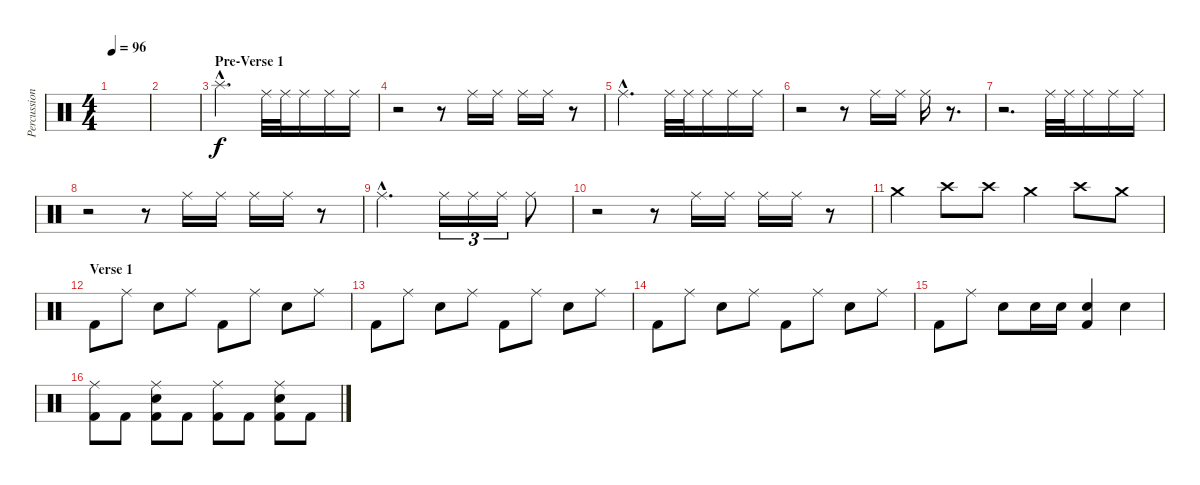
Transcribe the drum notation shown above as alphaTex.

\track ("Percussion" "Percussion") {instrument percussion}
\staff {score}
\articulation defaults
\ts (4 4)
\tempo 96
\clef neutral
\ks c
|
|
\section ("" "Pre-Verse 1")
"Splash (hit)"{hac}.2{d} "Ride (middle)".32 "Ride (middle)".32 "Ride (middle)".16 "Ride (middle)".16 "Ride (middle)".16 |
r.2 r.8 "Ride (middle)".16 "Ride (middle)".16 "Ride (middle)".16 "Ride (middle)".16 r.8 |
"Ride (middle)"{hac}.2{d} "Ride (middle)".32 "Ride (middle)".32 "Ride (middle)".16 "Ride (middle)".16 "Ride (middle)".16 |
r.2 r.8 "Ride (middle)".16 "Ride (middle)".16 "Ride (middle)".16 r.8{d} |
r.2{d} "Ride (middle)".32 "Ride (middle)".32 "Ride (middle)".16 "Ride (middle)".16 "Ride (middle)".16 |
r.2 r.8 "Ride (middle)".16 "Ride (middle)".16 "Ride (middle)".16 "Ride (middle)".16 r.8 |
"Ride (middle)"{hac}.2{d} "Ride (middle)".16{tu (3 2)} "Ride (middle)".16{tu (3 2)} "Ride (middle)".16{tu (3 2)} "Ride (middle)".8 |
r.2 r.8 "Ride (middle)".16 "Ride (middle)".16 "Ride (middle)".16 "Ride (middle)".16 r.8 |
"Crash medium (hit)".4 "Crash high (hit)".8 "Crash high (hit)".8 "Crash medium (hit)".4 "Crash high (hit)".8 "Crash medium (hit)".8 |
\section ("" "Verse 1")
"Kick (hit) 2".8 "Ride (middle)".8 "Snare (hit) 2".8 "Ride (middle)".8 "Kick (hit) 2".8 "Ride (middle)".8 "Snare (hit) 2".8 "Ride (middle)".8 |
"Kick (hit) 2".8 "Ride (middle)".8 "Snare (hit) 2".8 "Ride (middle)".8 "Kick (hit) 2".8 "Ride (middle)".8 "Snare (hit) 2".8 "Ride (middle)".8 |
"Kick (hit) 2".8 "Ride (middle)".8 "Snare (hit) 2".8 "Ride (middle)".8 "Kick (hit) 2".8 "Ride (middle)".8 "Snare (hit) 2".8 "Ride (middle)".8 |
"Kick (hit) 2".8 "Ride (middle)".8 "Snare (hit) 2".8 "Snare (hit) 2".16 "Snare (hit) 2".16 ("Snare (hit) 2" "Kick (hit) 2").4 "Snare (hit) 2".4 |
("Ride (middle)" "Kick (hit) 2").8 "Kick (hit) 2".8 ("Snare (hit) 2" "Ride (middle)" "Kick (hit) 2").8 "Kick (hit) 2".8 ("Ride (middle)" "Kick (hit) 2").8 "Kick (hit) 2".8 ("Snare (hit) 2" "Ride (middle)" "Kick (hit) 2").8 "Kick (hit) 2".8
